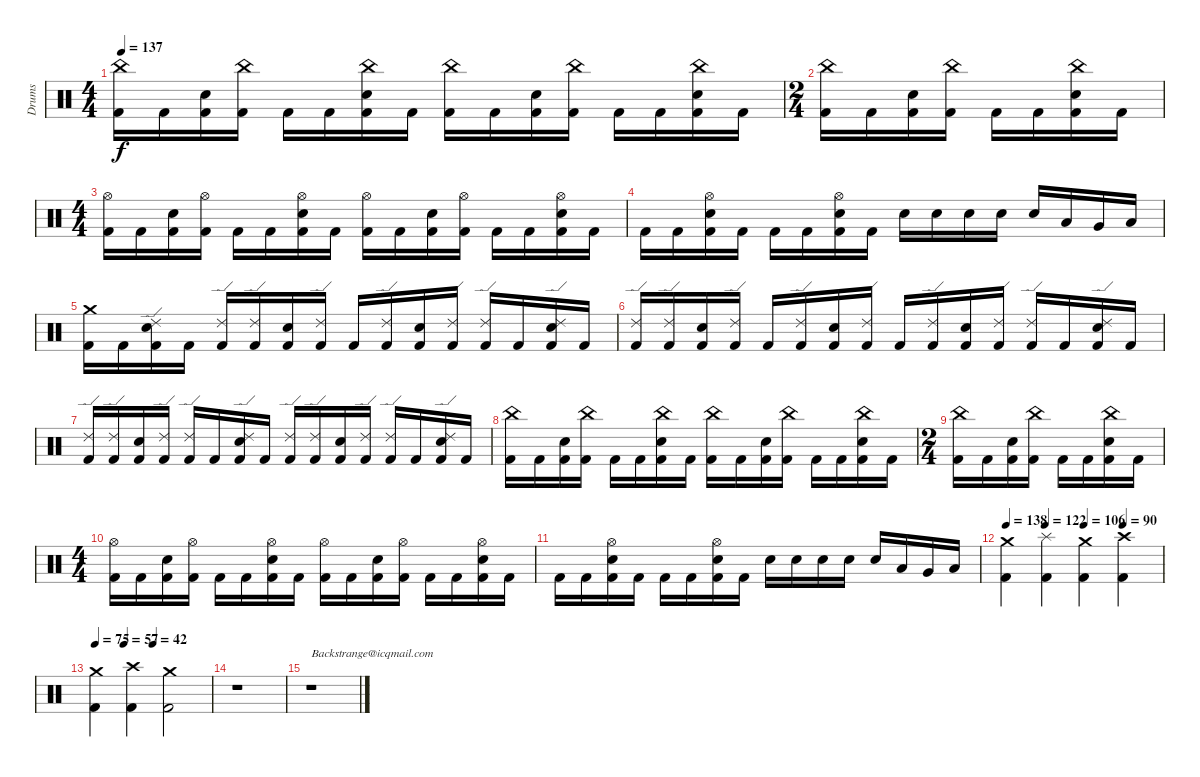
\track ("Drums" "Drums") {instrument percussion}
\staff {score}
\articulation defaults
\ts (4 4)
\tempo 137
\clef neutral
\ks c
("China (hit)" "Kick (hit) 2").16{dy f} "Kick (hit) 2".16 ("Electric Snare (hit)" "Kick (hit) 2").16 ("China (hit)" "Kick (hit) 2").16 "Kick (hit) 2".16 "Kick (hit) 2".16 ("China (hit)" "Electric Snare (hit)" "Kick (hit) 2").16 "Kick (hit) 2".16 ("China (hit)" "Kick (hit) 2").16 "Kick (hit) 2".16 ("Electric Snare (hit)" "Kick (hit) 2").16 ("China (hit)" "Kick (hit) 2").16 "Kick (hit) 2".16 "Kick (hit) 2".16 ("China (hit)" "Electric Snare (hit)" "Kick (hit) 2").16 "Kick (hit) 2".16 |
\ts (2 4)
("China (hit)" "Kick (hit) 2").16 "Kick (hit) 2".16 ("Electric Snare (hit)" "Kick (hit) 2").16 ("China (hit)" "Kick (hit) 2").16 "Kick (hit) 2".16 "Kick (hit) 2".16 ("China (hit)" "Electric Snare (hit)" "Kick (hit) 2").16 "Kick (hit) 2".16 |
\ts (4 4)
("Hi-Hat (open)" "Kick (hit) 2").16 "Kick (hit) 2".16 ("Electric Snare (hit)" "Kick (hit) 2").16 ("Hi-Hat (open)" "Kick (hit) 2").16 "Kick (hit) 2".16 "Kick (hit) 2".16 ("Hi-Hat (open)" "Electric Snare (hit)" "Kick (hit) 2").16 "Kick (hit) 2".16 ("Hi-Hat (open)" "Kick (hit) 2").16 "Kick (hit) 2".16 ("Electric Snare (hit)" "Kick (hit) 2").16 ("Hi-Hat (open)" "Kick (hit) 2").16 "Kick (hit) 2".16 "Kick (hit) 2".16 ("Hi-Hat (open)" "Electric Snare (hit)" "Kick (hit) 2").16 "Kick (hit) 2".16 |
"Kick (hit) 2".16 "Kick (hit) 2".16 ("Hi-Hat (open)" "Electric Snare (hit)" "Kick (hit) 2").16 "Kick (hit) 2".16 "Kick (hit) 2".16 "Kick (hit) 2".16 ("Hi-Hat (open)" "Electric Snare (hit)" "Kick (hit) 2").16 "Kick (hit) 2".16 "Electric Snare (hit)".16 "Electric Snare (hit)".16 "Electric Snare (hit)".16 "Electric Snare (hit)".16 "Electric Snare (hit)".16 "Low Tom (hit)".16 "Very Low Tom (hit)".16 "Low Floor Tom (hit)".16 |
("Crash medium (hit)" "Kick (hit) 2").16 "Kick (hit) 2".16 ("Ride (edge) 2" "Electric Snare (hit)" "Kick (hit) 2").16 "Kick (hit) 2".16 ("Ride (edge) 2" "Kick (hit) 2").16 ("Ride (edge) 2" "Kick (hit) 2").16 ("Electric Snare (hit)" "Kick (hit) 2").16 ("Ride (edge) 2" "Kick (hit) 2").16 "Kick (hit) 2".16 ("Ride (edge) 2" "Kick (hit) 2").16 ("Electric Snare (hit)" "Kick (hit) 2").16 ("Ride (edge) 2" "Kick (hit) 2").16 ("Ride (edge) 2" "Kick (hit) 2").16 "Kick (hit) 2".16 ("Ride (edge) 2" "Electric Snare (hit)" "Kick (hit) 2").16 "Kick (hit) 2".16 |
("Ride (edge) 2" "Kick (hit) 2").16 ("Ride (edge) 2" "Kick (hit) 2").16 ("Electric Snare (hit)" "Kick (hit) 2").16 ("Ride (edge) 2" "Kick (hit) 2").16 "Kick (hit) 2".16 ("Ride (edge) 2" "Kick (hit) 2").16 ("Electric Snare (hit)" "Kick (hit) 2").16 ("Ride (edge) 2" "Kick (hit) 2").16 "Kick (hit) 2".16 ("Ride (edge) 2" "Kick (hit) 2").16 ("Electric Snare (hit)" "Kick (hit) 2").16 ("Ride (edge) 2" "Kick (hit) 2").16 ("Ride (edge) 2" "Kick (hit) 2").16 "Kick (hit) 2".16 ("Ride (edge) 2" "Electric Snare (hit)" "Kick (hit) 2").16 "Kick (hit) 2".16 |
("Ride (edge) 2" "Kick (hit) 2").16 ("Ride (edge) 2" "Kick (hit) 2").16 ("Electric Snare (hit)" "Kick (hit) 2").16 ("Ride (edge) 2" "Kick (hit) 2").16 ("Ride (edge) 2" "Kick (hit) 2").16 "Kick (hit) 2".16 ("Ride (edge) 2" "Electric Snare (hit)" "Kick (hit) 2").16 "Kick (hit) 2".16 ("Ride (edge) 2" "Kick (hit) 2").16 ("Ride (edge) 2" "Kick (hit) 2").16 ("Electric Snare (hit)" "Kick (hit) 2").16 ("Ride (edge) 2" "Kick (hit) 2").16 ("Ride (edge) 2" "Kick (hit) 2").16 "Kick (hit) 2".16 ("Ride (edge) 2" "Electric Snare (hit)" "Kick (hit) 2").16 "Kick (hit) 2".16 |
("China (hit)" "Kick (hit) 2").16 "Kick (hit) 2".16 ("Electric Snare (hit)" "Kick (hit) 2").16 ("China (hit)" "Kick (hit) 2").16 "Kick (hit) 2".16 "Kick (hit) 2".16 ("China (hit)" "Electric Snare (hit)" "Kick (hit) 2").16 "Kick (hit) 2".16 ("China (hit)" "Kick (hit) 2").16 "Kick (hit) 2".16 ("Electric Snare (hit)" "Kick (hit) 2").16 ("China (hit)" "Kick (hit) 2").16 "Kick (hit) 2".16 "Kick (hit) 2".16 ("China (hit)" "Electric Snare (hit)" "Kick (hit) 2").16 "Kick (hit) 2".16 |
\ts (2 4)
("China (hit)" "Kick (hit) 2").16 "Kick (hit) 2".16 ("Electric Snare (hit)" "Kick (hit) 2").16 ("China (hit)" "Kick (hit) 2").16 "Kick (hit) 2".16 "Kick (hit) 2".16 ("China (hit)" "Electric Snare (hit)" "Kick (hit) 2").16 "Kick (hit) 2".16 |
\ts (4 4)
("Hi-Hat (open)" "Kick (hit) 2").16 "Kick (hit) 2".16 ("Electric Snare (hit)" "Kick (hit) 2").16 ("Hi-Hat (open)" "Kick (hit) 2").16 "Kick (hit) 2".16 "Kick (hit) 2".16 ("Hi-Hat (open)" "Electric Snare (hit)" "Kick (hit) 2").16 "Kick (hit) 2".16 ("Hi-Hat (open)" "Kick (hit) 2").16 "Kick (hit) 2".16 ("Electric Snare (hit)" "Kick (hit) 2").16 ("Hi-Hat (open)" "Kick (hit) 2").16 "Kick (hit) 2".16 "Kick (hit) 2".16 ("Hi-Hat (open)" "Electric Snare (hit)" "Kick (hit) 2").16 "Kick (hit) 2".16 |
"Kick (hit) 2".16 "Kick (hit) 2".16 ("Hi-Hat (open)" "Electric Snare (hit)" "Kick (hit) 2").16 "Kick (hit) 2".16 "Kick (hit) 2".16 "Kick (hit) 2".16 ("Hi-Hat (open)" "Electric Snare (hit)" "Kick (hit) 2").16 "Kick (hit) 2".16 "Electric Snare (hit)".16 "Electric Snare (hit)".16 "Electric Snare (hit)".16 "Electric Snare (hit)".16 "Electric Snare (hit)".16 "Low Tom (hit)".16 "Very Low Tom (hit)".16 "Low Floor Tom (hit)".16 |
\tempo 138
\tempo (122 0.25)
\tempo (106 0.5)
\tempo (90 0.75)
("Crash medium (hit)" "Kick (hit) 2").4 ("Splash (hit)" "Kick (hit) 2").4 ("Crash medium (hit)" "Kick (hit) 2").4 ("Crash high (hit)" "Kick (hit) 2").4 |
\tempo 75
\tempo (57 0.25)
\tempo (42 0.5)
("Crash medium (hit)" "Kick (hit) 2").4 ("Crash high (hit)" "Kick (hit) 2").4 ("Crash medium (hit)" "Kick (hit) 2").2 |
r.1 |
r.1{txt "Backstrange@icqmail.com"}
